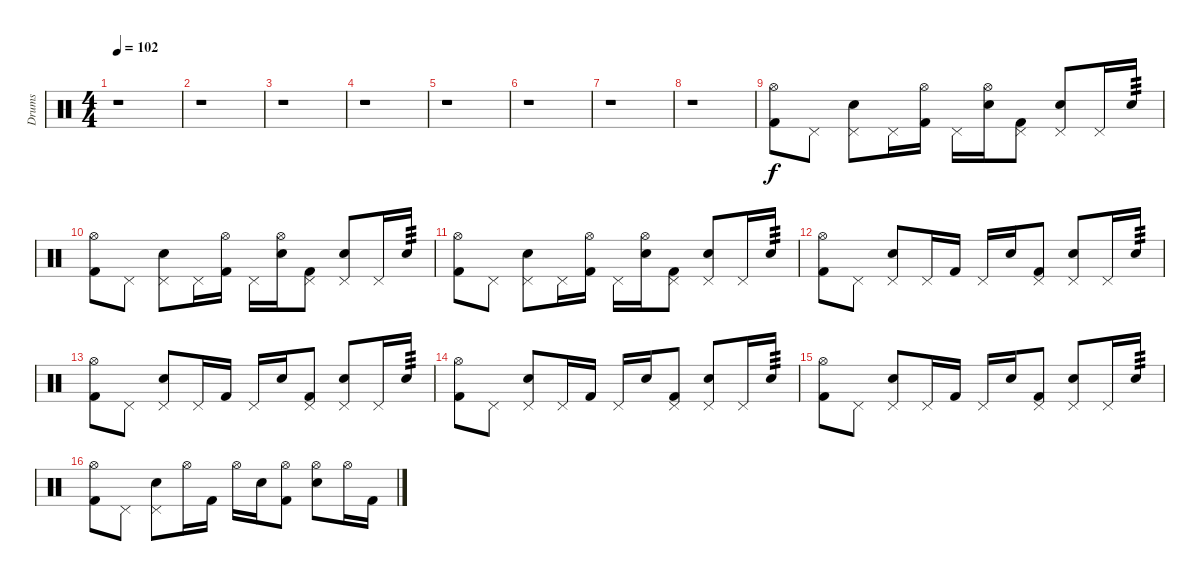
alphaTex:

\track ("Drums" "Drums") {instrument percussion}
\staff {score}
\articulation defaults
\ts (4 4)
\tempo 102
\clef neutral
\ks c
r.1{dy f} |
r.1 |
r.1 |
r.1 |
r.1 |
r.1 |
r.1 |
r.1 |
("Hi-Hat (open)" "Kick (hit) 2").8 "Pedal Hi-Hat (hit)".8 ("Pedal Hi-Hat (hit)" "Electric Snare (hit)").8 "Pedal Hi-Hat (hit)".16 ("Hi-Hat (open)" "Kick (hit) 2").16 "Pedal Hi-Hat (hit)".16 ("Hi-Hat (open)" "Electric Snare (hit)").16 ("Pedal Hi-Hat (hit)" "Kick (hit) 2").8 ("Pedal Hi-Hat (hit)" "Electric Snare (hit)").8 "Pedal Hi-Hat (hit)".16 "Electric Snare (hit)".16{tp 3} |
("Hi-Hat (open)" "Kick (hit) 2").8 "Pedal Hi-Hat (hit)".8 ("Pedal Hi-Hat (hit)" "Electric Snare (hit)").8 "Pedal Hi-Hat (hit)".16 ("Hi-Hat (open)" "Kick (hit) 2").16 "Pedal Hi-Hat (hit)".16 ("Hi-Hat (open)" "Electric Snare (hit)").16 ("Pedal Hi-Hat (hit)" "Kick (hit) 2").8 ("Pedal Hi-Hat (hit)" "Electric Snare (hit)").8 "Pedal Hi-Hat (hit)".16 "Electric Snare (hit)".16{tp 3} |
("Hi-Hat (open)" "Kick (hit) 2").8 "Pedal Hi-Hat (hit)".8 ("Pedal Hi-Hat (hit)" "Electric Snare (hit)").8 "Pedal Hi-Hat (hit)".16 ("Hi-Hat (open)" "Kick (hit) 2").16 "Pedal Hi-Hat (hit)".16 ("Hi-Hat (open)" "Electric Snare (hit)").16 ("Pedal Hi-Hat (hit)" "Kick (hit) 2").8 ("Pedal Hi-Hat (hit)" "Electric Snare (hit)").8 "Pedal Hi-Hat (hit)".16 "Electric Snare (hit)".16{tp 3} |
("Hi-Hat (open)" "Kick (hit) 2").8 "Pedal Hi-Hat (hit)".8 ("Pedal Hi-Hat (hit)" "Electric Snare (hit)").8 "Pedal Hi-Hat (hit)".16 "Kick (hit) 2".16 "Pedal Hi-Hat (hit)".16 "Electric Snare (hit)".16 ("Pedal Hi-Hat (hit)" "Kick (hit) 2").8 ("Pedal Hi-Hat (hit)" "Electric Snare (hit)").8 "Pedal Hi-Hat (hit)".16 "Electric Snare (hit)".16{tp 3} |
("Hi-Hat (open)" "Kick (hit) 2").8 "Pedal Hi-Hat (hit)".8 ("Pedal Hi-Hat (hit)" "Electric Snare (hit)").8 "Pedal Hi-Hat (hit)".16 "Kick (hit) 2".16 "Pedal Hi-Hat (hit)".16 "Electric Snare (hit)".16 ("Pedal Hi-Hat (hit)" "Kick (hit) 2").8 ("Pedal Hi-Hat (hit)" "Electric Snare (hit)").8 "Pedal Hi-Hat (hit)".16 "Electric Snare (hit)".16{tp 3} |
("Hi-Hat (open)" "Kick (hit) 2").8 "Pedal Hi-Hat (hit)".8 ("Pedal Hi-Hat (hit)" "Electric Snare (hit)").8 "Pedal Hi-Hat (hit)".16 "Kick (hit) 2".16 "Pedal Hi-Hat (hit)".16 "Electric Snare (hit)".16 ("Pedal Hi-Hat (hit)" "Kick (hit) 2").8 ("Pedal Hi-Hat (hit)" "Electric Snare (hit)").8 "Pedal Hi-Hat (hit)".16 "Electric Snare (hit)".16{tp 3} |
("Hi-Hat (open)" "Kick (hit) 2").8 "Pedal Hi-Hat (hit)".8 ("Pedal Hi-Hat (hit)" "Electric Snare (hit)").8 "Pedal Hi-Hat (hit)".16 "Kick (hit) 2".16 "Pedal Hi-Hat (hit)".16 "Electric Snare (hit)".16 ("Pedal Hi-Hat (hit)" "Kick (hit) 2").8 ("Pedal Hi-Hat (hit)" "Electric Snare (hit)").8 "Pedal Hi-Hat (hit)".16 "Electric Snare (hit)".16{tp 3} |
("Hi-Hat (open)" "Kick (hit) 2").8 "Pedal Hi-Hat (hit)".8 ("Pedal Hi-Hat (hit)" "Electric Snare (hit)").8 "Hi-Hat (open)".16 "Kick (hit) 2".16 "Hi-Hat (open)".16 "Electric Snare (hit)".16 ("Hi-Hat (open)" "Kick (hit) 2").8 ("Hi-Hat (open)" "Electric Snare (hit)").8 "Hi-Hat (open)".16 "Kick (hit) 2".16
